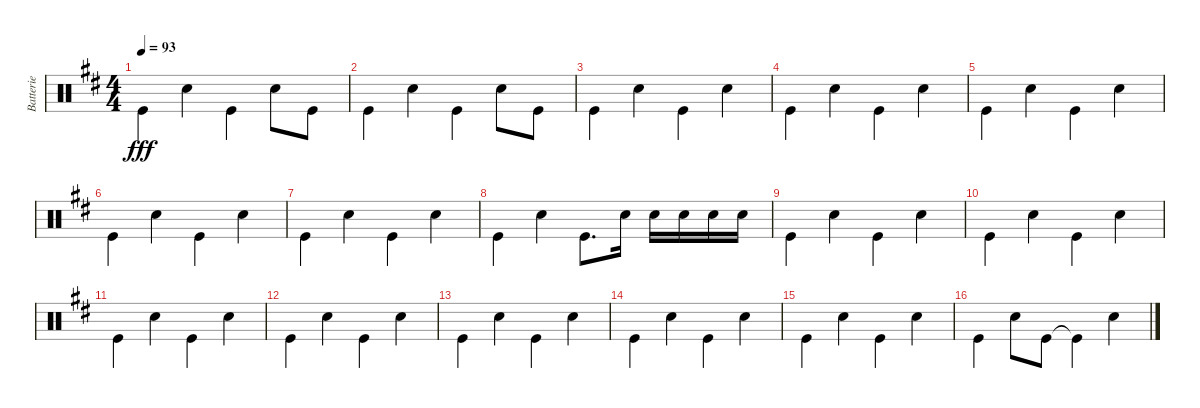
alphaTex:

\track ("Batterie" "Batterie") {instrument percussion}
\staff {score}
\articulation defaults
\ts (4 4)
\tempo 93
\clef neutral
\ks d "Kick (hit)".4{dy fff beam Down} "Snare (hit) 2".4 "Kick (hit)".4{beam Down} "Snare (hit) 2".8{beam Down} "Kick (hit)".8{beam Down}
|
"Kick (hit)".4{beam Down} "Snare (hit) 2".4 "Kick (hit)".4{beam Down} "Snare (hit) 2".8{beam Down} "Kick (hit)".8{beam Down} |
"Kick (hit)".4{beam Down} "Snare (hit) 2".4 "Kick (hit)".4{beam Down} "Snare (hit) 2".4 |
"Kick (hit)".4{beam Down} "Snare (hit) 2".4 "Kick (hit)".4{beam Down} "Snare (hit) 2".4 |
"Kick (hit)".4{beam Down} "Snare (hit) 2".4 "Kick (hit)".4{beam Down} "Snare (hit) 2".4 |
"Kick (hit)".4{beam Down} "Snare (hit) 2".4 "Kick (hit)".4{beam Down} "Snare (hit) 2".4 |
"Kick (hit)".4{beam Down} "Snare (hit) 2".4 "Kick (hit)".4{beam Down} "Snare (hit) 2".4 |
"Kick (hit)".4{beam Down} "Snare (hit) 2".4 "Kick (hit)".8{d beam Down} "Snare (hit) 2".16{beam Down} "Snare (hit) 2".16 "Snare (hit) 2".16 "Snare (hit) 2".16 "Snare (hit) 2".16 |
"Kick (hit)".4{beam Down} "Electric Snare (hit)".4 "Kick (hit)".4{beam Down} "Electric Snare (hit)".4 |
"Kick (hit)".4{beam Down} "Electric Snare (hit)".4 "Kick (hit)".4{beam Down} "Electric Snare (hit)".4 |
"Kick (hit)".4{beam Down} "Electric Snare (hit)".4 "Kick (hit)".4{beam Down} "Electric Snare (hit)".4 |
"Kick (hit)".4{beam Down} "Electric Snare (hit)".4 "Kick (hit)".4{beam Down} "Electric Snare (hit)".4 |
"Kick (hit)".4{beam Down} "Electric Snare (hit)".4 "Kick (hit)".4{beam Down} "Electric Snare (hit)".4 |
"Kick (hit)".4{beam Down} "Electric Snare (hit)".4 "Kick (hit)".4{beam Down} "Electric Snare (hit)".4 |
"Kick (hit)".4{beam Down} "Electric Snare (hit)".4 "Kick (hit)".4{beam Down} "Electric Snare (hit)".4 |
"Kick (hit)".4{beam Down} "Electric Snare (hit)".8{beam Down} "Kick (hit)".8{beam Down} "Kick (hit)"{t}.4{beam Down} "Snare (hit) 2".4
